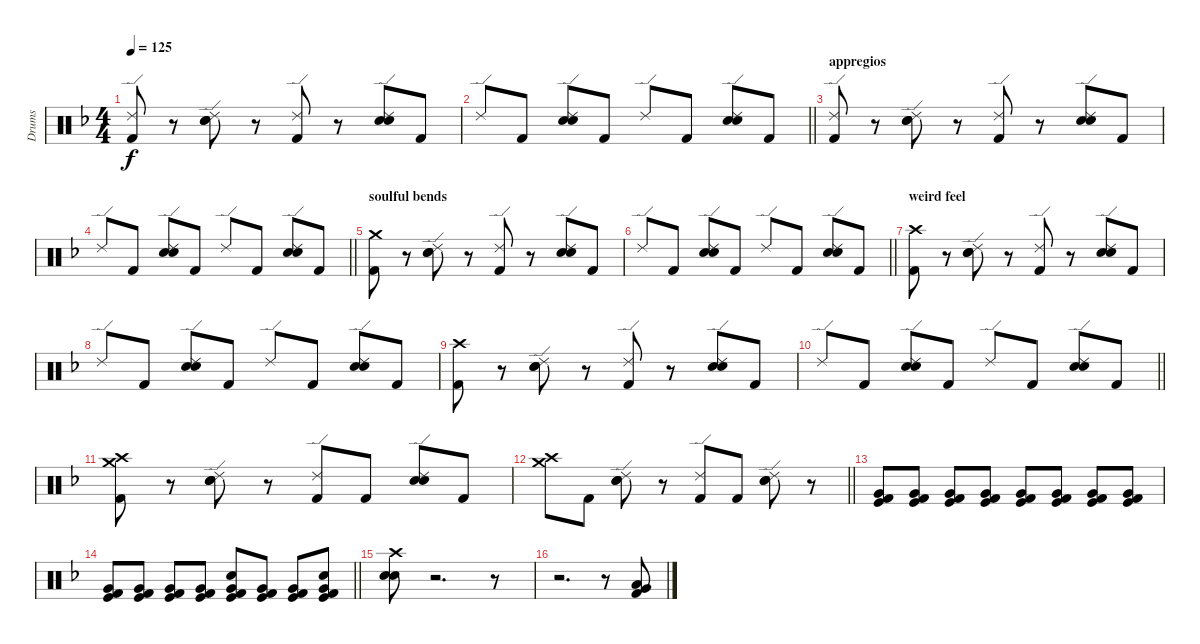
\track ("Drums" "Drums") {instrument percussion}
\staff {score}
\articulation defaults
\ts (4 4)
\tempo 125
\clef neutral
\ks f
("Ride (edge) 2" "Kick (hit) 2").8{dy f} r.8 ("Ride (edge) 2" "Electric Snare (hit)" "Snare (hit) 2").8 r.8 ("Ride (edge) 2" "Kick (hit) 2").8 r.8 ("Ride (edge) 2" "Electric Snare (hit)" "Snare (hit) 2").8 "Kick (hit) 2".8 |
\barLineRight lightlight "Ride (edge) 2".8 "Kick (hit) 2".8
("Ride (edge) 2" "Electric Snare (hit)" "Snare (hit) 2").8 "Kick (hit) 2".8 "Ride (edge) 2".8 "Kick (hit) 2".8 ("Ride (edge) 2" "Electric Snare (hit)" "Snare (hit) 2").8 "Kick (hit) 2".8 |
\section ("" "appregios")
("Ride (edge) 2" "Kick (hit) 2").8 r.8 ("Ride (edge) 2" "Electric Snare (hit)" "Snare (hit) 2").8 r.8 ("Ride (edge) 2" "Kick (hit) 2").8 r.8 ("Ride (edge) 2" "Electric Snare (hit)" "Snare (hit) 2").8 "Kick (hit) 2".8 |
\barLineRight lightlight "Ride (edge) 2".8 "Kick (hit) 2".8
("Ride (edge) 2" "Electric Snare (hit)" "Snare (hit) 2").8 "Kick (hit) 2".8 "Ride (edge) 2".8 "Kick (hit) 2".8 ("Ride (edge) 2" "Electric Snare (hit)" "Snare (hit) 2").8 "Kick (hit) 2".8 |
\section ("" "soulful bends")
("Crash medium (hit)" "Kick (hit) 2").8 r.8 ("Ride (edge) 2" "Electric Snare (hit)" "Snare (hit) 2").8 r.8 ("Ride (edge) 2" "Kick (hit) 2").8 r.8 ("Ride (edge) 2" "Electric Snare (hit)" "Snare (hit) 2").8 "Kick (hit) 2".8 |
\barLineRight lightlight "Ride (edge) 2".8 "Kick (hit) 2".8
("Ride (edge) 2" "Electric Snare (hit)" "Snare (hit) 2").8 "Kick (hit) 2".8 "Ride (edge) 2".8 "Kick (hit) 2".8 ("Ride (edge) 2" "Electric Snare (hit)" "Snare (hit) 2").8 "Kick (hit) 2".8 |
\section ("" "weird feel")
("Crash high (hit)" "Kick (hit) 2").8 r.8 ("Ride (edge) 2" "Electric Snare (hit)" "Snare (hit) 2").8 r.8 ("Ride (edge) 2" "Kick (hit) 2").8 r.8 ("Ride (edge) 2" "Electric Snare (hit)" "Snare (hit) 2").8 "Kick (hit) 2".8 |
"Ride (edge) 2".8 "Kick (hit) 2".8 ("Ride (edge) 2" "Electric Snare (hit)" "Snare (hit) 2").8 "Kick (hit) 2".8 "Ride (edge) 2".8 "Kick (hit) 2".8 ("Ride (edge) 2" "Electric Snare (hit)" "Snare (hit) 2").8 "Kick (hit) 2".8 |
("Crash high (hit)" "Kick (hit) 2").8 r.8 ("Ride (edge) 2" "Electric Snare (hit)" "Snare (hit) 2").8 r.8 ("Ride (edge) 2" "Kick (hit) 2").8 r.8 ("Ride (edge) 2" "Electric Snare (hit)" "Snare (hit) 2").8 "Kick (hit) 2".8 |
\barLineRight lightlight "Ride (edge) 2".8 "Kick (hit) 2".8
("Ride (edge) 2" "Electric Snare (hit)" "Snare (hit) 2").8 "Kick (hit) 2".8 "Ride (edge) 2".8 "Kick (hit) 2".8 ("Ride (edge) 2" "Electric Snare (hit)" "Snare (hit) 2").8 "Kick (hit) 2".8 |
("Crash high (hit)" "Crash medium (hit)" "Kick (hit) 2").8 r.8 ("Ride (edge) 2" "Electric Snare (hit)" "Snare (hit) 2").8 r.8 ("Ride (edge) 2" "Kick (hit) 2").8 "Kick (hit) 2".8 ("Ride (edge) 2" "Electric Snare (hit)" "Snare (hit) 2").8 "Kick (hit) 2".8 |
\barLineRight lightlight
("Crash medium (hit)" "Crash high (hit)").8 "Kick (hit) 2".8 ("Ride (edge) 2" "Electric Snare (hit)" "Snare (hit) 2").8 r.8 ("Ride (edge) 2" "Kick (hit) 2").8 "Kick (hit) 2".8 ("Ride (edge) 2" "Electric Snare (hit)" "Snare (hit) 2").8 r.8 |
("Very Low Tom (hit)" "Kick (hit)" "Kick (hit) 2").8 ("Very Low Tom (hit)" "Kick (hit)" "Kick (hit) 2").8 ("Very Low Tom (hit)" "Kick (hit)" "Kick (hit) 2").8 ("Very Low Tom (hit)" "Kick (hit)" "Kick (hit) 2").8 ("Very Low Tom (hit)" "Kick (hit)" "Kick (hit) 2").8 ("Very Low Tom (hit)" "Kick (hit)" "Kick (hit) 2").8 ("Very Low Tom (hit)" "Kick (hit)" "Kick (hit) 2").8 ("Very Low Tom (hit)" "Kick (hit)" "Kick (hit) 2").8 |
\barLineRight lightlight
("Very Low Tom (hit)" "Kick (hit)" "Kick (hit) 2").8 ("Very Low Tom (hit)" "Kick (hit)" "Kick (hit) 2").8 ("Very Low Tom (hit)" "Kick (hit)" "Kick (hit) 2").8 ("Very Low Tom (hit)" "Kick (hit)" "Kick (hit) 2").8 ("Electric Snare (hit)" "Very Low Tom (hit)" "Kick (hit)" "Kick (hit) 2").8 ("Very Low Tom (hit)" "Kick (hit)" "Kick (hit) 2").8 ("Very Low Tom (hit)" "Kick (hit)" "Kick (hit) 2").8 ("Electric Snare (hit)" "Very Low Tom (hit)" "Kick (hit)" "Kick (hit) 2").8 |
("Crash high (hit)" "Electric Snare (hit)" "Snare (hit) 2").8 r.2{d} r.8 |
r.2{d} r.8 ("Very Low Tom (hit)" "Low Floor Tom (hit)" "Kick (hit) 2").8
